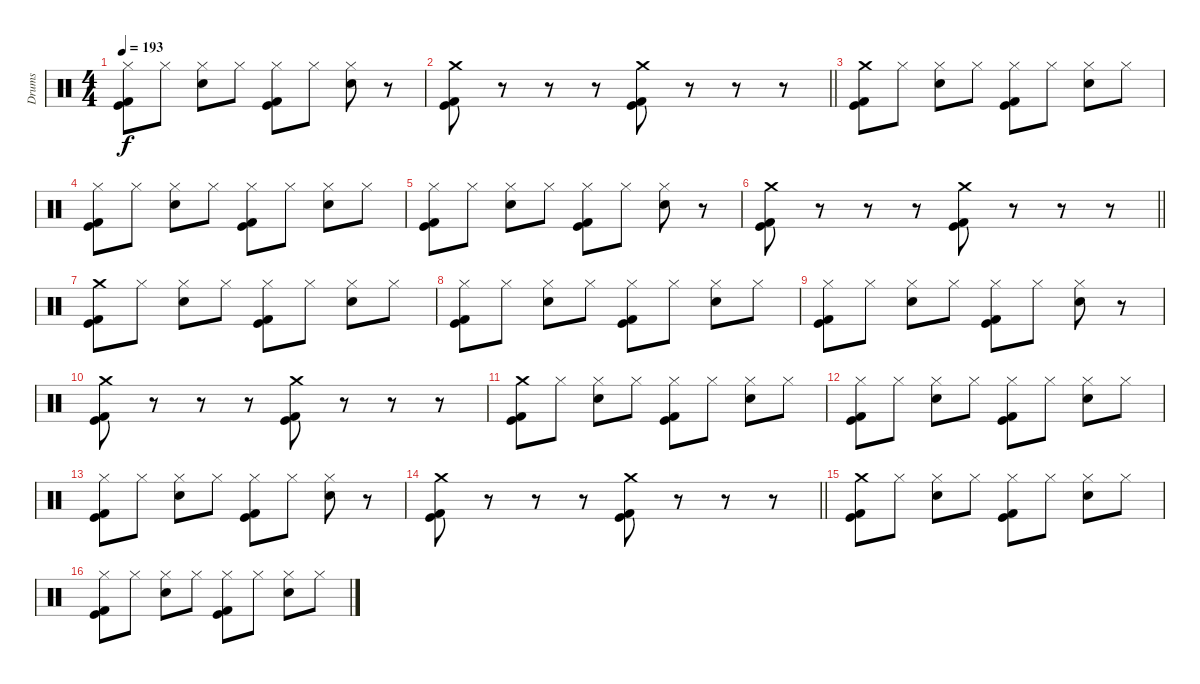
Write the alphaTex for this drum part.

\track ("Drums" "Drums") {instrument percussion}
\staff
\articulation defaults
\ts (4 4)
\tempo 193
\clef neutral
\ks c
("Hi-Hat (closed)" "Kick (hit)" "Kick (hit) 2").8{dy f} "Hi-Hat (closed)".8 ("Hi-Hat (closed)" "Snare (hit) 2").8 "Hi-Hat (closed)".8 ("Hi-Hat (closed)" "Kick (hit)" "Kick (hit) 2").8 "Hi-Hat (closed)".8 ("Hi-Hat (closed)" "Snare (hit) 2").8 r.8 |
\barLineRight lightlight
("Crash medium (hit)" "Kick (hit)" "Kick (hit) 2").8 r.8 r.8 r.8 ("Crash medium (hit)" "Kick (hit)" "Kick (hit) 2").8 r.8 r.8 r.8 |
("Crash medium (hit)" "Kick (hit)" "Kick (hit) 2").8 "Hi-Hat (closed)".8 ("Hi-Hat (closed)" "Snare (hit) 2").8 "Hi-Hat (closed)".8 ("Hi-Hat (closed)" "Kick (hit)" "Kick (hit) 2").8 "Hi-Hat (closed)".8 ("Hi-Hat (closed)" "Snare (hit) 2").8 "Hi-Hat (closed)".8 |
("Hi-Hat (closed)" "Kick (hit)" "Kick (hit) 2").8 "Hi-Hat (closed)".8 ("Hi-Hat (closed)" "Snare (hit) 2").8 "Hi-Hat (closed)".8 ("Hi-Hat (closed)" "Kick (hit)" "Kick (hit) 2").8 "Hi-Hat (closed)".8 ("Hi-Hat (closed)" "Snare (hit) 2").8 "Hi-Hat (closed)".8 |
("Hi-Hat (closed)" "Kick (hit)" "Kick (hit) 2").8 "Hi-Hat (closed)".8 ("Hi-Hat (closed)" "Snare (hit) 2").8 "Hi-Hat (closed)".8 ("Hi-Hat (closed)" "Kick (hit)" "Kick (hit) 2").8 "Hi-Hat (closed)".8 ("Hi-Hat (closed)" "Snare (hit) 2").8 r.8 |
\barLineRight lightlight
("Crash medium (hit)" "Kick (hit)" "Kick (hit) 2").8 r.8 r.8 r.8 ("Crash medium (hit)" "Kick (hit)" "Kick (hit) 2").8 r.8 r.8 r.8 |
("Crash medium (hit)" "Kick (hit)" "Kick (hit) 2").8 "Hi-Hat (closed)".8 ("Hi-Hat (closed)" "Snare (hit) 2").8 "Hi-Hat (closed)".8 ("Hi-Hat (closed)" "Kick (hit)" "Kick (hit) 2").8 "Hi-Hat (closed)".8 ("Hi-Hat (closed)" "Snare (hit) 2").8 "Hi-Hat (closed)".8 |
("Hi-Hat (closed)" "Kick (hit)" "Kick (hit) 2").8 "Hi-Hat (closed)".8 ("Hi-Hat (closed)" "Snare (hit) 2").8 "Hi-Hat (closed)".8 ("Hi-Hat (closed)" "Kick (hit)" "Kick (hit) 2").8 "Hi-Hat (closed)".8 ("Hi-Hat (closed)" "Snare (hit) 2").8 "Hi-Hat (closed)".8 |
("Hi-Hat (closed)" "Kick (hit)" "Kick (hit) 2").8 "Hi-Hat (closed)".8 ("Hi-Hat (closed)" "Snare (hit) 2").8 "Hi-Hat (closed)".8 ("Hi-Hat (closed)" "Kick (hit)" "Kick (hit) 2").8 "Hi-Hat (closed)".8 ("Hi-Hat (closed)" "Snare (hit) 2").8 r.8 |
("Crash medium (hit)" "Kick (hit)" "Kick (hit) 2").8 r.8 r.8 r.8 ("Crash medium (hit)" "Kick (hit)" "Kick (hit) 2").8 r.8 r.8 r.8 |
("Crash medium (hit)" "Kick (hit)" "Kick (hit) 2").8 "Hi-Hat (closed)".8 ("Hi-Hat (closed)" "Snare (hit) 2").8 "Hi-Hat (closed)".8 ("Hi-Hat (closed)" "Kick (hit)" "Kick (hit) 2").8 "Hi-Hat (closed)".8 ("Hi-Hat (closed)" "Snare (hit) 2").8 "Hi-Hat (closed)".8 |
("Hi-Hat (closed)" "Kick (hit)" "Kick (hit) 2").8 "Hi-Hat (closed)".8 ("Hi-Hat (closed)" "Snare (hit) 2").8 "Hi-Hat (closed)".8 ("Hi-Hat (closed)" "Kick (hit)" "Kick (hit) 2").8 "Hi-Hat (closed)".8 ("Hi-Hat (closed)" "Snare (hit) 2").8 "Hi-Hat (closed)".8 |
("Hi-Hat (closed)" "Kick (hit)" "Kick (hit) 2").8 "Hi-Hat (closed)".8 ("Hi-Hat (closed)" "Snare (hit) 2").8 "Hi-Hat (closed)".8 ("Hi-Hat (closed)" "Kick (hit)" "Kick (hit) 2").8 "Hi-Hat (closed)".8 ("Hi-Hat (closed)" "Snare (hit) 2").8 r.8 |
\barLineRight lightlight
("Crash medium (hit)" "Kick (hit)" "Kick (hit) 2").8 r.8 r.8 r.8 ("Crash medium (hit)" "Kick (hit)" "Kick (hit) 2").8 r.8 r.8 r.8 |
("Crash medium (hit)" "Kick (hit)" "Kick (hit) 2").8 "Hi-Hat (closed)".8 ("Hi-Hat (closed)" "Snare (hit) 2").8 "Hi-Hat (closed)".8 ("Hi-Hat (closed)" "Kick (hit)" "Kick (hit) 2").8 "Hi-Hat (closed)".8 ("Hi-Hat (closed)" "Snare (hit) 2").8 "Hi-Hat (closed)".8 |
("Hi-Hat (closed)" "Kick (hit)" "Kick (hit) 2").8 "Hi-Hat (closed)".8 ("Hi-Hat (closed)" "Snare (hit) 2").8 "Hi-Hat (closed)".8 ("Hi-Hat (closed)" "Kick (hit)" "Kick (hit) 2").8 "Hi-Hat (closed)".8 ("Hi-Hat (closed)" "Snare (hit) 2").8 "Hi-Hat (closed)".8
